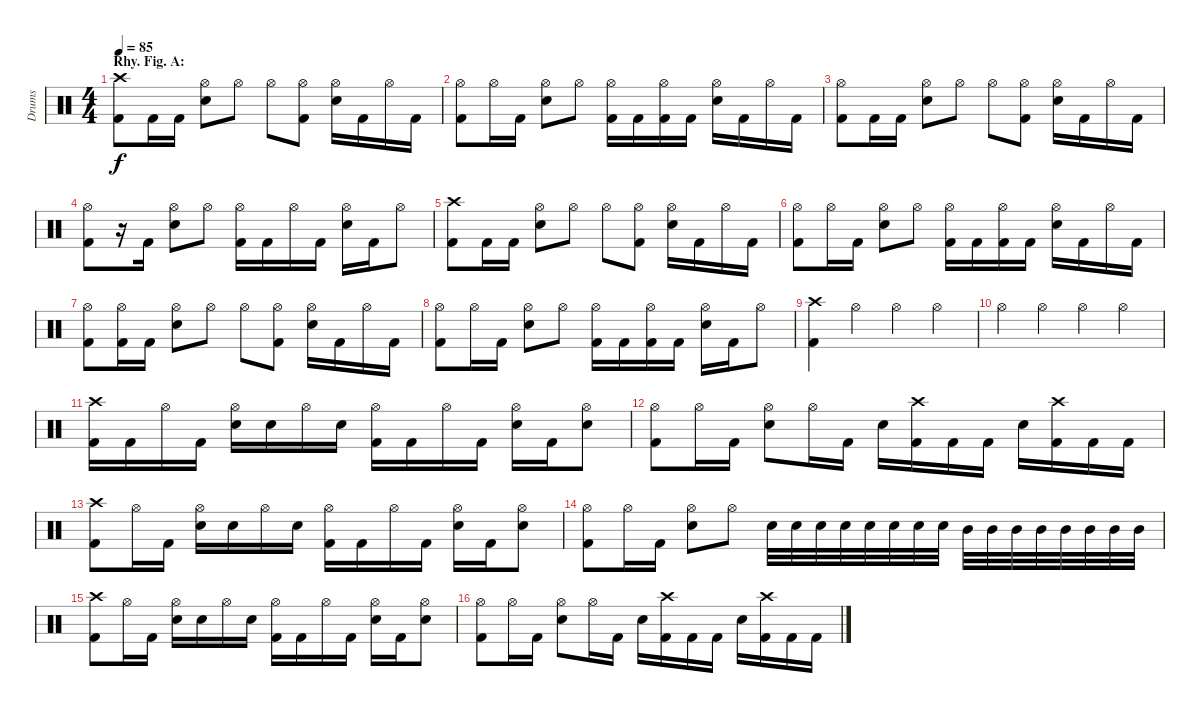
\track ("Drums" "Drums") {instrument percussion}
\staff {score}
\articulation defaults
\ts (4 4)
\section ("" "Rhy. Fig. A:")
\tempo 85
\clef neutral
\ks c
("Crash high (hit)" "Kick (hit) 2").8{dy f} "Kick (hit) 2".16 "Kick (hit) 2".16 ("Hi-Hat (open)" "Electric Snare (hit)").8 "Hi-Hat (open)".8 "Hi-Hat (open)".8 ("Hi-Hat (open)" "Kick (hit) 2").8 ("Hi-Hat (open)" "Electric Snare (hit)").16 "Kick (hit) 2".16 "Hi-Hat (open)".16 "Kick (hit) 2".16 |
("Hi-Hat (open)" "Kick (hit) 2").8 "Hi-Hat (open)".16 "Kick (hit) 2".16 ("Hi-Hat (open)" "Electric Snare (hit)").8 "Hi-Hat (open)".8 ("Hi-Hat (open)" "Kick (hit) 2").16 "Kick (hit) 2".16 ("Hi-Hat (open)" "Kick (hit) 2").16 "Kick (hit) 2".16 ("Hi-Hat (open)" "Electric Snare (hit)").16 "Kick (hit) 2".16 "Hi-Hat (open)".16 "Kick (hit) 2".16 |
("Hi-Hat (open)" "Kick (hit) 2").8 "Kick (hit) 2".16 "Kick (hit) 2".16 ("Hi-Hat (open)" "Electric Snare (hit)").8 "Hi-Hat (open)".8 "Hi-Hat (open)".8 ("Hi-Hat (open)" "Kick (hit) 2").8 ("Hi-Hat (open)" "Electric Snare (hit)").16 "Kick (hit) 2".16 "Hi-Hat (open)".16 "Kick (hit) 2".16 |
("Hi-Hat (open)" "Kick (hit) 2").8 r.16 "Kick (hit) 2".16 ("Hi-Hat (open)" "Electric Snare (hit)").8 "Hi-Hat (open)".8 ("Hi-Hat (open)" "Kick (hit) 2").16 "Kick (hit) 2".16 "Hi-Hat (open)".16 "Kick (hit) 2".16 ("Hi-Hat (open)" "Electric Snare (hit)").16 "Kick (hit) 2".16 "Hi-Hat (open)".8 |
("Crash high (hit)" "Kick (hit) 2").8 "Kick (hit) 2".16 "Kick (hit) 2".16 ("Hi-Hat (open)" "Electric Snare (hit)").8 "Hi-Hat (open)".8 "Hi-Hat (open)".8 ("Hi-Hat (open)" "Kick (hit) 2").8 ("Hi-Hat (open)" "Electric Snare (hit)").16 "Kick (hit) 2".16 "Hi-Hat (open)".16 "Kick (hit) 2".16 |
("Hi-Hat (open)" "Kick (hit) 2").8 "Hi-Hat (open)".16 "Kick (hit) 2".16 ("Hi-Hat (open)" "Electric Snare (hit)").8 "Hi-Hat (open)".8 ("Hi-Hat (open)" "Kick (hit) 2").16 "Kick (hit) 2".16 ("Hi-Hat (open)" "Kick (hit) 2").16 "Kick (hit) 2".16 ("Hi-Hat (open)" "Electric Snare (hit)").16 "Kick (hit) 2".16 "Hi-Hat (open)".16 "Kick (hit) 2".16 |
("Hi-Hat (open)" "Kick (hit) 2").8 ("Hi-Hat (open)" "Kick (hit) 2").16 "Kick (hit) 2".16 ("Hi-Hat (open)" "Electric Snare (hit)").8 "Hi-Hat (open)".8 "Hi-Hat (open)".8 ("Hi-Hat (open)" "Kick (hit) 2").8 ("Hi-Hat (open)" "Electric Snare (hit)").16 "Kick (hit) 2".16 "Hi-Hat (open)".16 "Kick (hit) 2".16 |
("Hi-Hat (open)" "Kick (hit) 2").8 "Hi-Hat (open)".16 "Kick (hit) 2".16 ("Hi-Hat (open)" "Electric Snare (hit)").8 "Hi-Hat (open)".8 ("Hi-Hat (open)" "Kick (hit) 2").16 "Kick (hit) 2".16 ("Hi-Hat (open)" "Kick (hit) 2").16 "Kick (hit) 2".16 ("Hi-Hat (open)" "Electric Snare (hit)").16 "Kick (hit) 2".16 "Hi-Hat (open)".8 |
("Crash high (hit)" "Kick (hit) 2").4 "Hi-Hat (open)".4 "Hi-Hat (open)".4 "Hi-Hat (open)".4 |
"Hi-Hat (open)".4 "Hi-Hat (open)".4 "Hi-Hat (open)".4 "Hi-Hat (open)".4 |
("Crash high (hit)" "Kick (hit) 2").16 "Kick (hit) 2".16 "Hi-Hat (open)".16 "Kick (hit) 2".16 ("Hi-Hat (open)" "Electric Snare (hit)").16 "Electric Snare (hit)".16 "Hi-Hat (open)".16 "Electric Snare (hit)".16 ("Hi-Hat (open)" "Kick (hit) 2").16 "Kick (hit) 2".16 "Hi-Hat (open)".16 "Kick (hit) 2".16 ("Hi-Hat (open)" "Electric Snare (hit)").16 "Kick (hit) 2".16 ("Hi-Hat (open)" "Electric Snare (hit)").8 |
("Hi-Hat (open)" "Kick (hit) 2").8 "Hi-Hat (open)".16 "Kick (hit) 2".16 ("Hi-Hat (open)" "Electric Snare (hit)").8 "Hi-Hat (open)".16 "Kick (hit) 2".16 "Electric Snare (hit)".16 ("Crash high (hit)" "Kick (hit) 2").16 "Kick (hit) 2".16 "Kick (hit) 2".16 "Electric Snare (hit)".16 ("Crash high (hit)" "Kick (hit) 2").16 "Kick (hit) 2".16 "Kick (hit) 2".16 |
("Crash high (hit)" "Kick (hit) 2").8 "Hi-Hat (open)".16 "Kick (hit) 2".16 ("Hi-Hat (open)" "Electric Snare (hit)").16 "Electric Snare (hit)".16 "Hi-Hat (open)".16 "Electric Snare (hit)".16 ("Hi-Hat (open)" "Kick (hit) 2").16 "Kick (hit) 2".16 "Hi-Hat (open)".16 "Kick (hit) 2".16 ("Hi-Hat (open)" "Electric Snare (hit)").16 "Kick (hit) 2".16 ("Hi-Hat (open)" "Electric Snare (hit)").8 |
("Hi-Hat (open)" "Kick (hit) 2").8 "Hi-Hat (open)".16 "Kick (hit) 2".16 ("Hi-Hat (open)" "Electric Snare (hit)").8 "Hi-Hat (open)".8 "Electric Snare (hit)".32 "Electric Snare (hit)".32 "Electric Snare (hit)".32 "Electric Snare (hit)".32 "Electric Snare (hit)".32 "Electric Snare (hit)".32 "Electric Snare (hit)".32 "Electric Snare (hit)".32 "Mid Tom (hit)".32 "Mid Tom (hit)".32 "Mid Tom (hit)".32 "Mid Tom (hit)".32 "Mid Tom (hit)".32 "Mid Tom (hit)".32 "Mid Tom (hit)".32 "Mid Tom (hit)".32 |
("Crash high (hit)" "Kick (hit) 2").8 "Hi-Hat (open)".16 "Kick (hit) 2".16 ("Hi-Hat (open)" "Electric Snare (hit)").16 "Electric Snare (hit)".16 "Hi-Hat (open)".16 "Electric Snare (hit)".16 ("Hi-Hat (open)" "Kick (hit) 2").16 "Kick (hit) 2".16 "Hi-Hat (open)".16 "Kick (hit) 2".16 ("Hi-Hat (open)" "Electric Snare (hit)").16 "Kick (hit) 2".16 ("Hi-Hat (open)" "Electric Snare (hit)").8 |
("Hi-Hat (open)" "Kick (hit) 2").8 "Hi-Hat (open)".16 "Kick (hit) 2".16 ("Hi-Hat (open)" "Electric Snare (hit)").8 "Hi-Hat (open)".16 "Kick (hit) 2".16 "Electric Snare (hit)".16 ("Crash high (hit)" "Kick (hit) 2").16 "Kick (hit) 2".16 "Kick (hit) 2".16 "Electric Snare (hit)".16 ("Crash high (hit)" "Kick (hit) 2").16 "Kick (hit) 2".16 "Kick (hit) 2".16
